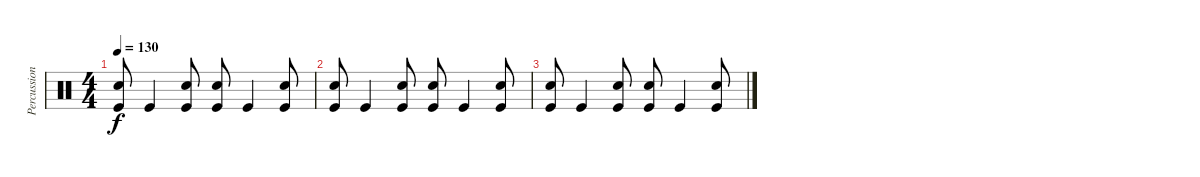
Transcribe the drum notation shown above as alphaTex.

\track ("Percussion" "Percussion") {instrument percussion}
\staff {score}
\articulation defaults
\ts (4 4)
\tempo 130
\clef neutral
\ks c
("Kick (hit)" "Snare (hit) 2").8{dy f} "Kick (hit)".4 ("Kick (hit)" "Snare (hit) 2").8 ("Kick (hit)" "Snare (hit) 2").8 "Kick (hit)".4 ("Kick (hit)" "Snare (hit) 2").8 |
("Kick (hit)" "Snare (hit) 2").8 "Kick (hit)".4 ("Kick (hit)" "Snare (hit) 2").8 ("Kick (hit)" "Snare (hit) 2").8 "Kick (hit)".4 ("Kick (hit)" "Snare (hit) 2").8 |
("Kick (hit)" "Snare (hit) 2").8 "Kick (hit)".4 ("Kick (hit)" "Snare (hit) 2").8 ("Kick (hit)" "Snare (hit) 2").8 "Kick (hit)".4 ("Kick (hit)" "Snare (hit) 2").8
